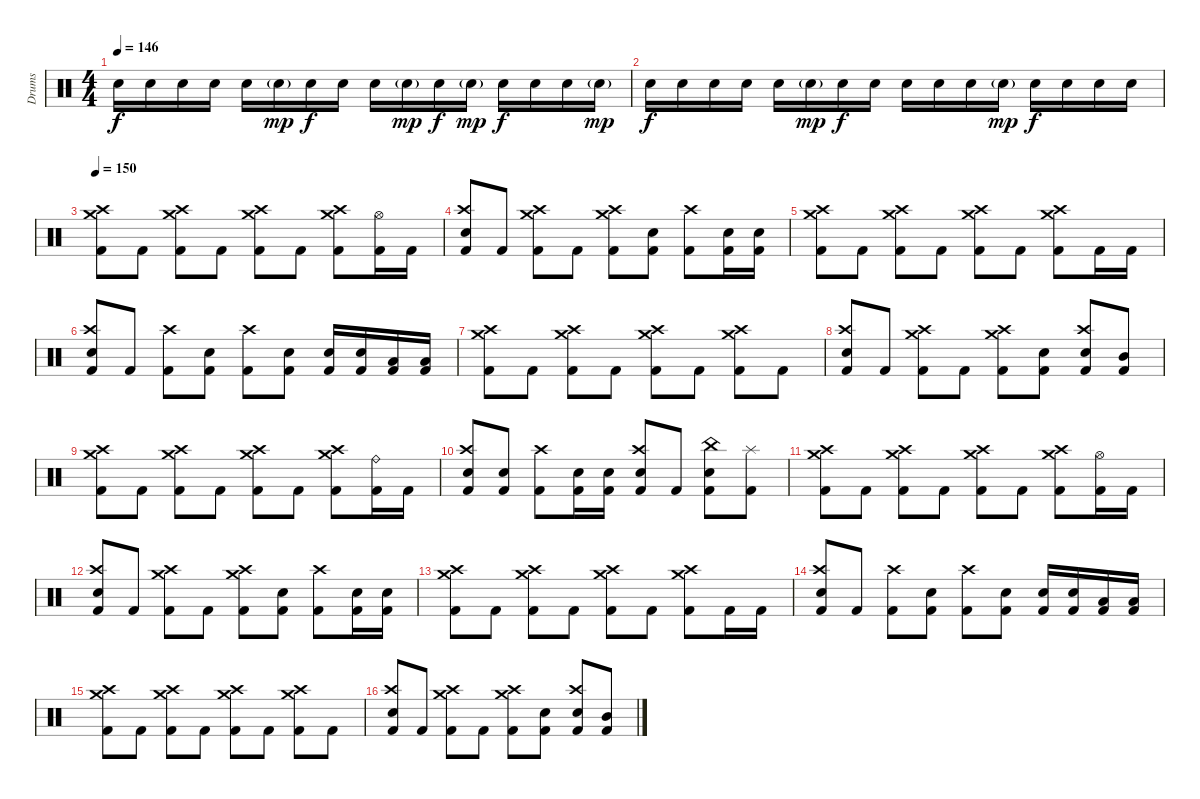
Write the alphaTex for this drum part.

\track ("Drums" "Drums") {solo instrument percussion}
\staff {score}
\articulation defaults
\ts (4 4)
\tempo 146
\clef neutral
\ks c "Electric Snare (hit)".16{dy f} "Electric Snare (hit)".16 "Electric Snare (hit)".16 "Electric Snare (hit)".16 "Electric Snare (hit)".16 "Electric Snare (hit)"{g}.16{dy mp} "Electric Snare (hit)".16{dy f} "Electric Snare (hit)".16 "Electric Snare (hit)".16 "Electric Snare (hit)"{g}.16{dy mp} "Electric Snare (hit)".16{dy f} "Electric Snare (hit)"{g}.16{dy mp} "Electric Snare (hit)".16{dy f} "Electric Snare (hit)".16 "Electric Snare (hit)".16 "Electric Snare (hit)"{g}.16{dy mp}
|
"Electric Snare (hit)".16{dy f} "Electric Snare (hit)".16 "Electric Snare (hit)".16 "Electric Snare (hit)".16 "Electric Snare (hit)".16 "Electric Snare (hit)"{g}.16{dy mp} "Electric Snare (hit)".16{dy f} "Electric Snare (hit)".16 "Electric Snare (hit)".16 "Electric Snare (hit)".16 "Electric Snare (hit)".16 "Electric Snare (hit)"{g}.16{dy mp} "Electric Snare (hit)".16{dy f} "Electric Snare (hit)".16 "Electric Snare (hit)".16 "Electric Snare (hit)".16 |
\tempo 150
("Crash high (hit)" "Crash medium (hit)" "Kick (hit) 2").8 "Kick (hit) 2".8 ("Crash high (hit)" "Crash medium (hit)" "Kick (hit) 2").8 "Kick (hit) 2".8 ("Crash high (hit)" "Crash medium (hit)" "Kick (hit) 2").8 "Kick (hit) 2".8 ("Crash high (hit)" "Crash medium (hit)" "Kick (hit) 2").8 ("Hi-Hat (open)" "Kick (hit) 2").16 "Kick (hit) 2".16 |
("Crash high (hit)" "Electric Snare (hit)" "Kick (hit) 2").8 "Kick (hit) 2".8 ("Crash high (hit)" "Crash medium (hit)" "Kick (hit) 2").8 "Kick (hit) 2".8 ("Crash high (hit)" "Crash medium (hit)" "Kick (hit) 2").8 ("Electric Snare (hit)" "Kick (hit) 2").8 ("Crash high (hit)" "Kick (hit) 2").8 ("Electric Snare (hit)" "Kick (hit) 2").16 ("Electric Snare (hit)" "Kick (hit) 2").16 |
("Crash high (hit)" "Crash medium (hit)" "Kick (hit) 2").8 "Kick (hit) 2".8 ("Crash high (hit)" "Crash medium (hit)" "Kick (hit) 2").8 "Kick (hit) 2".8 ("Crash high (hit)" "Crash medium (hit)" "Kick (hit) 2").8 "Kick (hit) 2".8 ("Crash high (hit)" "Crash medium (hit)" "Kick (hit) 2").8 "Kick (hit) 2".16 "Kick (hit) 2".16 |
("Crash high (hit)" "Electric Snare (hit)" "Kick (hit) 2").8 "Kick (hit) 2".8 ("Crash high (hit)" "Kick (hit) 2").8 ("Electric Snare (hit)" "Kick (hit) 2").8 ("Crash high (hit)" "Kick (hit) 2").8 ("Electric Snare (hit)" "Kick (hit) 2").8 ("Electric Snare (hit)" "Kick (hit) 2").16 ("Electric Snare (hit)" "Kick (hit) 2").16 ("Low Tom (hit)" "Kick (hit) 2").16 ("Low Tom (hit)" "Kick (hit) 2").16 |
("Crash high (hit)" "Crash medium (hit)" "Kick (hit) 2").8 "Kick (hit) 2".8 ("Crash high (hit)" "Crash medium (hit)" "Kick (hit) 2").8 "Kick (hit) 2".8 ("Crash high (hit)" "Crash medium (hit)" "Kick (hit) 2").8 "Kick (hit) 2".8 ("Crash high (hit)" "Crash medium (hit)" "Kick (hit) 2").8 "Kick (hit) 2".8 |
("Crash high (hit)" "Electric Snare (hit)" "Kick (hit) 2").8 "Kick (hit) 2".8 ("Crash high (hit)" "Crash medium (hit)" "Kick (hit) 2").8 "Kick (hit) 2".8 ("Crash high (hit)" "Crash medium (hit)" "Kick (hit) 2").8 ("Electric Snare (hit)" "Kick (hit) 2").8 ("Crash high (hit)" "Electric Snare (hit)" "Kick (hit) 2").8 ("Mid Tom (hit)" "Kick (hit) 2").8 |
("Crash high (hit)" "Crash medium (hit)" "Kick (hit) 2").8 "Kick (hit) 2".8 ("Crash high (hit)" "Crash medium (hit)" "Kick (hit) 2").8 "Kick (hit) 2".8 ("Crash high (hit)" "Crash medium (hit)" "Kick (hit) 2").8 "Kick (hit) 2".8 ("Crash high (hit)" "Crash medium (hit)" "Kick (hit) 2").8 ("Ride (bell)" "Kick (hit) 2").16 "Kick (hit) 2".16 |
("Crash high (hit)" "Electric Snare (hit)" "Kick (hit) 2").8 ("Electric Snare (hit)" "Kick (hit) 2").8 ("Crash high (hit)" "Kick (hit) 2").8 ("Electric Snare (hit)" "Kick (hit) 2").16 ("Electric Snare (hit)" "Kick (hit) 2").16 ("Crash high (hit)" "Electric Snare (hit)" "Kick (hit) 2").8 "Kick (hit) 2".8 ("China (hit)" "Electric Snare (hit)" "Kick (hit) 2").8 ("Splash (hit)" "Kick (hit) 2").8 |
("Crash high (hit)" "Crash medium (hit)" "Kick (hit) 2").8 "Kick (hit) 2".8 ("Crash high (hit)" "Crash medium (hit)" "Kick (hit) 2").8 "Kick (hit) 2".8 ("Crash high (hit)" "Crash medium (hit)" "Kick (hit) 2").8 "Kick (hit) 2".8 ("Crash high (hit)" "Crash medium (hit)" "Kick (hit) 2").8 ("Hi-Hat (open)" "Kick (hit) 2").16 "Kick (hit) 2".16 |
("Crash high (hit)" "Electric Snare (hit)" "Kick (hit) 2").8 "Kick (hit) 2".8 ("Crash high (hit)" "Crash medium (hit)" "Kick (hit) 2").8 "Kick (hit) 2".8 ("Crash high (hit)" "Crash medium (hit)" "Kick (hit) 2").8 ("Electric Snare (hit)" "Kick (hit) 2").8 ("Crash high (hit)" "Kick (hit) 2").8 ("Electric Snare (hit)" "Kick (hit) 2").16 ("Electric Snare (hit)" "Kick (hit) 2").16 |
("Crash high (hit)" "Crash medium (hit)" "Kick (hit) 2").8 "Kick (hit) 2".8 ("Crash high (hit)" "Crash medium (hit)" "Kick (hit) 2").8 "Kick (hit) 2".8 ("Crash high (hit)" "Crash medium (hit)" "Kick (hit) 2").8 "Kick (hit) 2".8 ("Crash high (hit)" "Crash medium (hit)" "Kick (hit) 2").8 "Kick (hit) 2".16 "Kick (hit) 2".16 |
("Crash high (hit)" "Electric Snare (hit)" "Kick (hit) 2").8 "Kick (hit) 2".8 ("Crash high (hit)" "Kick (hit) 2").8 ("Electric Snare (hit)" "Kick (hit) 2").8 ("Crash high (hit)" "Kick (hit) 2").8 ("Electric Snare (hit)" "Kick (hit) 2").8 ("Electric Snare (hit)" "Kick (hit) 2").16 ("Electric Snare (hit)" "Kick (hit) 2").16 ("Low Tom (hit)" "Kick (hit) 2").16 ("Low Tom (hit)" "Kick (hit) 2").16 |
("Crash high (hit)" "Crash medium (hit)" "Kick (hit) 2").8 "Kick (hit) 2".8 ("Crash high (hit)" "Crash medium (hit)" "Kick (hit) 2").8 "Kick (hit) 2".8 ("Crash high (hit)" "Crash medium (hit)" "Kick (hit) 2").8 "Kick (hit) 2".8 ("Crash high (hit)" "Crash medium (hit)" "Kick (hit) 2").8 "Kick (hit) 2".8 |
("Crash high (hit)" "Electric Snare (hit)" "Kick (hit) 2").8 "Kick (hit) 2".8 ("Crash high (hit)" "Crash medium (hit)" "Kick (hit) 2").8 "Kick (hit) 2".8 ("Crash high (hit)" "Crash medium (hit)" "Kick (hit) 2").8 ("Electric Snare (hit)" "Kick (hit) 2").8 ("Crash high (hit)" "Electric Snare (hit)" "Kick (hit) 2").8 ("Mid Tom (hit)" "Kick (hit) 2").8
